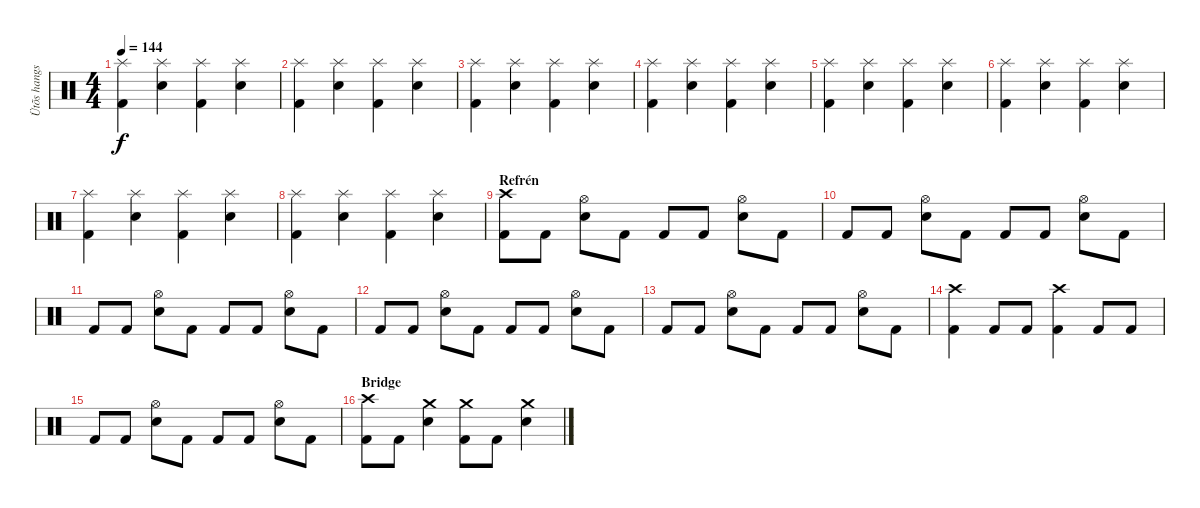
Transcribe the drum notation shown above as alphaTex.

\track ("Ütõs hangszer" "Ütõs hangs") {instrument percussion}
\staff {score}
\articulation defaults
\ts (4 4)
\tempo 144
\clef neutral
\ks c
("Splash (hit)" "Kick (hit) 2").4{dy f} ("Splash (hit)" "Electric Snare (hit)").4 ("Splash (hit)" "Kick (hit) 2").4 ("Splash (hit)" "Electric Snare (hit)").4 |
("Splash (hit)" "Kick (hit) 2").4 ("Splash (hit)" "Electric Snare (hit)").4 ("Splash (hit)" "Kick (hit) 2").4 ("Splash (hit)" "Electric Snare (hit)").4 |
("Splash (hit)" "Kick (hit) 2").4 ("Splash (hit)" "Electric Snare (hit)").4 ("Splash (hit)" "Kick (hit) 2").4 ("Splash (hit)" "Electric Snare (hit)").4 |
("Splash (hit)" "Kick (hit) 2").4 ("Splash (hit)" "Electric Snare (hit)").4 ("Splash (hit)" "Kick (hit) 2").4 ("Splash (hit)" "Electric Snare (hit)").4 |
("Splash (hit)" "Kick (hit) 2").4 ("Splash (hit)" "Electric Snare (hit)").4 ("Splash (hit)" "Kick (hit) 2").4 ("Splash (hit)" "Electric Snare (hit)").4 |
("Splash (hit)" "Kick (hit) 2").4 ("Splash (hit)" "Electric Snare (hit)").4 ("Splash (hit)" "Kick (hit) 2").4 ("Splash (hit)" "Electric Snare (hit)").4 |
("Splash (hit)" "Kick (hit) 2").4 ("Splash (hit)" "Electric Snare (hit)").4 ("Splash (hit)" "Kick (hit) 2").4 ("Splash (hit)" "Electric Snare (hit)").4 |
("Splash (hit)" "Kick (hit) 2").4 ("Splash (hit)" "Electric Snare (hit)").4 ("Splash (hit)" "Kick (hit) 2").4 ("Splash (hit)" "Electric Snare (hit)").4 |
\section ("" "Refrén")
("Crash high (hit)" "Kick (hit) 2").8 "Kick (hit) 2".8 ("Hi-Hat (open)" "Electric Snare (hit)").8 "Kick (hit) 2".8 "Kick (hit) 2".8 "Kick (hit) 2".8 ("Hi-Hat (open)" "Electric Snare (hit)").8 "Kick (hit) 2".8 |
"Kick (hit) 2".8 "Kick (hit) 2".8 ("Hi-Hat (open)" "Electric Snare (hit)").8 "Kick (hit) 2".8 "Kick (hit) 2".8 "Kick (hit) 2".8 ("Hi-Hat (open)" "Electric Snare (hit)").8 "Kick (hit) 2".8 |
"Kick (hit) 2".8 "Kick (hit) 2".8 ("Hi-Hat (open)" "Electric Snare (hit)").8 "Kick (hit) 2".8 "Kick (hit) 2".8 "Kick (hit) 2".8 ("Hi-Hat (open)" "Electric Snare (hit)").8 "Kick (hit) 2".8 |
"Kick (hit) 2".8 "Kick (hit) 2".8 ("Hi-Hat (open)" "Electric Snare (hit)").8 "Kick (hit) 2".8 "Kick (hit) 2".8 "Kick (hit) 2".8 ("Hi-Hat (open)" "Electric Snare (hit)").8 "Kick (hit) 2".8 |
"Kick (hit) 2".8 "Kick (hit) 2".8 ("Hi-Hat (open)" "Electric Snare (hit)").8 "Kick (hit) 2".8 "Kick (hit) 2".8 "Kick (hit) 2".8 ("Hi-Hat (open)" "Electric Snare (hit)").8 "Kick (hit) 2".8 |
("Crash high (hit)" "Kick (hit) 2").4 "Kick (hit) 2".8 "Kick (hit) 2".8 ("Crash high (hit)" "Kick (hit) 2").4 "Kick (hit) 2".8 "Kick (hit) 2".8 |
"Kick (hit) 2".8 "Kick (hit) 2".8 ("Hi-Hat (open)" "Electric Snare (hit)").8 "Kick (hit) 2".8 "Kick (hit) 2".8 "Kick (hit) 2".8 ("Hi-Hat (open)" "Electric Snare (hit)").8 "Kick (hit) 2".8 |
\section ("" "Bridge")
("Crash high (hit)" "Kick (hit) 2").8 "Kick (hit) 2".8 ("Crash medium (hit)" "Electric Snare (hit)").4 ("Crash medium (hit)" "Kick (hit) 2").8 "Kick (hit) 2".8 ("Crash medium (hit)" "Electric Snare (hit)").4
